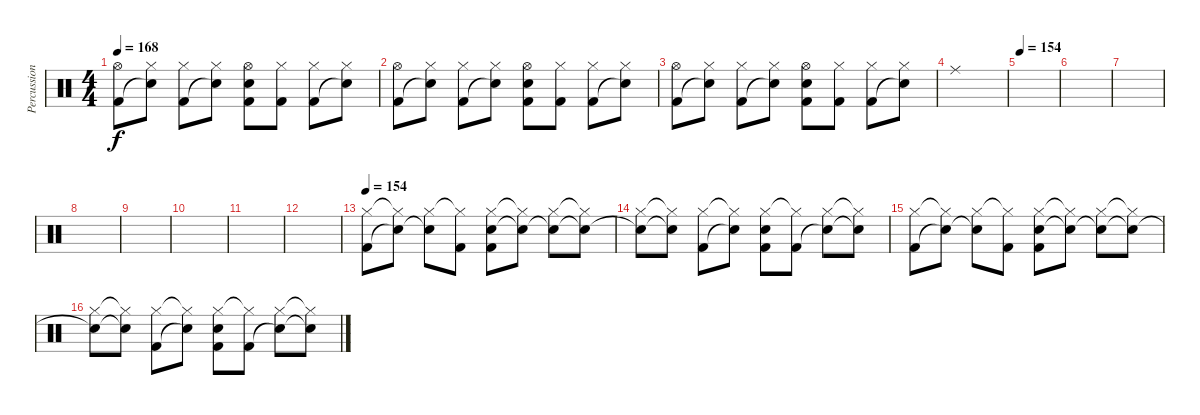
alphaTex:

\track ("Percussion" "Percussion") {instrument percussion}
\staff {score}
\articulation defaults
\ts (4 4)
\tempo 168
\clef neutral
\ks c
("Hi-Hat (open)" "Kick (hit) 2").8{dy f} ("Hi-Hat (closed)" "Snare (hit)"{t}).8 ("Hi-Hat (closed)" "Kick (hit) 2").8 ("Hi-Hat (closed)" "Snare (hit)"{t}).8 ("Hi-Hat (open)" "Electric Snare (hit)" "Kick (hit) 2").8 ("Hi-Hat (closed)" "Kick (hit) 2").8 ("Hi-Hat (closed)" "Kick (hit) 2").8 ("Hi-Hat (closed)" "Snare (hit)"{t}).8 |
("Hi-Hat (open)" "Kick (hit) 2").8 ("Hi-Hat (closed)" "Snare (hit)"{t}).8 ("Hi-Hat (closed)" "Kick (hit) 2").8 ("Hi-Hat (closed)" "Snare (hit)"{t}).8 ("Hi-Hat (open)" "Electric Snare (hit)" "Kick (hit) 2").8 ("Hi-Hat (closed)" "Kick (hit) 2").8 ("Hi-Hat (closed)" "Kick (hit) 2").8 ("Hi-Hat (closed)" "Snare (hit)"{t}).8 |
("Hi-Hat (open)" "Kick (hit) 2").8 ("Hi-Hat (closed)" "Snare (hit)"{t}).8 ("Hi-Hat (closed)" "Kick (hit) 2").8 ("Hi-Hat (closed)" "Snare (hit)"{t}).8 ("Hi-Hat (open)" "Electric Snare (hit)" "Kick (hit) 2").8 ("Hi-Hat (closed)" "Kick (hit) 2").8 ("Hi-Hat (closed)" "Kick (hit) 2").8 ("Hi-Hat (closed)" "Snare (hit)"{t}).8 |
"Ride (middle)".1 |
\tempo 154
|
|
|
|
|
|
|
|
\tempo 154
("Hi-Hat (closed)" "Kick (hit) 2").8 ("Hi-Hat (closed)"{t} "Snare (hit)"{t}).8 ("Hi-Hat (closed)" "Snare (hit)"{t}).8 ("Hi-Hat (closed)"{t} "Kick (hit) 2").8 ("Hi-Hat (closed)" "Electric Snare (hit)" "Kick (hit) 2").8 ("Hi-Hat (closed)"{t} "Snare (hit)"{t}).8 ("Hi-Hat (closed)" "Snare (hit)"{t}).8 ("Hi-Hat (closed)"{t} "Snare (hit)"{t}).8 |
("Hi-Hat (closed)" "Snare (hit)"{t}).8 ("Hi-Hat (closed)"{t} "Snare (hit)"{t}).8 ("Hi-Hat (closed)" "Kick (hit) 2").8 ("Hi-Hat (closed)"{t} "Snare (hit)"{t}).8 ("Hi-Hat (closed)" "Electric Snare (hit)" "Kick (hit) 2").8 ("Hi-Hat (closed)"{t} "Kick (hit) 2").8 ("Hi-Hat (closed)" "Snare (hit)"{t}).8 ("Hi-Hat (closed)"{t} "Snare (hit)"{t}).8 |
("Hi-Hat (closed)" "Kick (hit) 2").8 ("Hi-Hat (closed)"{t} "Snare (hit)"{t}).8 ("Hi-Hat (closed)" "Snare (hit)"{t}).8 ("Hi-Hat (closed)"{t} "Kick (hit) 2").8 ("Hi-Hat (closed)" "Electric Snare (hit)" "Kick (hit) 2").8 ("Hi-Hat (closed)"{t} "Snare (hit)"{t}).8 ("Hi-Hat (closed)" "Snare (hit)"{t}).8 ("Hi-Hat (closed)"{t} "Snare (hit)"{t}).8 |
("Hi-Hat (closed)" "Snare (hit)"{t}).8 ("Hi-Hat (closed)"{t} "Snare (hit)"{t}).8 ("Hi-Hat (closed)" "Kick (hit) 2").8 ("Hi-Hat (closed)"{t} "Snare (hit)"{t}).8 ("Hi-Hat (closed)" "Electric Snare (hit)" "Kick (hit) 2").8 ("Hi-Hat (closed)"{t} "Kick (hit) 2").8 ("Hi-Hat (closed)" "Snare (hit)"{t}).8 ("Hi-Hat (closed)"{t} "Snare (hit)"{t}).8
